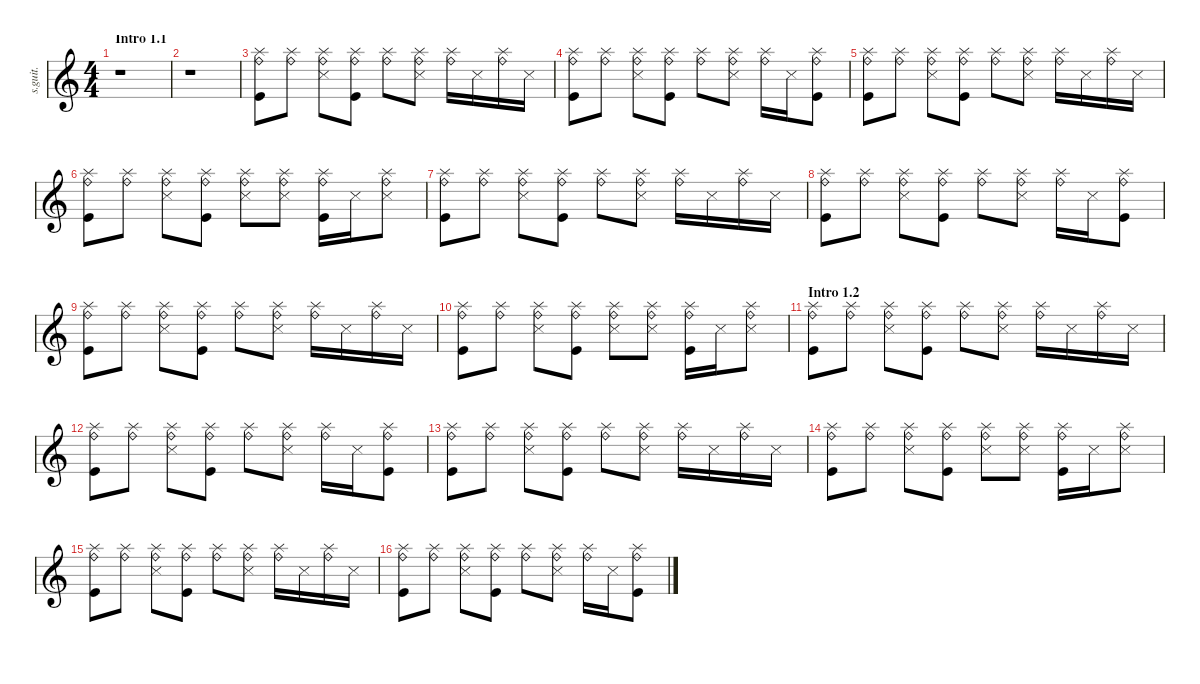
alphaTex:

\defaultSystemsLayout 4
\hideDynamics
\bracketExtendMode nobrackets
\track ("Sample Drums" "s.guit.") {instrument percussion}
\staff {score}
\articulation defaults
\ts (4 4)
\beaming (8 2 2 2 2)
\section ("" "Intro 1.1")
\tempo (192 hide)
\clef g2
\ks c
r.1{dy mf} |
r.1 |
("Splash (hit)" "Ride (bell)" "Kick (hit)").8{lyrics (0 "") lyrics (1 "") lyrics (2 "") lyrics (3 "") lyrics (4 "")} ("Splash (hit)" "Ride (bell)").8{lyrics (0 "") lyrics (1 "") lyrics (2 "") lyrics (3 "") lyrics (4 "")} ("Splash (hit)" "Ride (bell)" "Snare (side stick) 3").8{lyrics (0 "") lyrics (1 "") lyrics (2 "") lyrics (3 "") lyrics (4 "")} ("Splash (hit)" "Ride (bell)" "Kick (hit)").8{lyrics (0 "") lyrics (1 "") lyrics (2 "") lyrics (3 "") lyrics (4 "")} ("Splash (hit)" "Ride (bell)").8{lyrics (0 "") lyrics (1 "") lyrics (2 "") lyrics (3 "") lyrics (4 "")} ("Splash (hit)" "Ride (bell)" "Snare (side stick) 3").8{lyrics (0 "") lyrics (1 "") lyrics (2 "") lyrics (3 "") lyrics (4 "")} ("Splash (hit)" "Ride (bell)").16{lyrics (0 "") lyrics (1 "") lyrics (2 "") lyrics (3 "") lyrics (4 "")} "Snare (side stick) 3".16{lyrics (0 "") lyrics (1 "") lyrics (2 "") lyrics (3 "") lyrics (4 "")} ("Splash (hit)" "Ride (bell)").16{lyrics (0 "") lyrics (1 "") lyrics (2 "") lyrics (3 "") lyrics (4 "")} "Snare (side stick) 3".16{lyrics (0 "") lyrics (1 "") lyrics (2 "") lyrics (3 "") lyrics (4 "")} |
("Splash (hit)" "Ride (bell)" "Kick (hit)").8{lyrics (0 "") lyrics (1 "") lyrics (2 "") lyrics (3 "") lyrics (4 "")} ("Splash (hit)" "Ride (bell)").8{lyrics (0 "") lyrics (1 "") lyrics (2 "") lyrics (3 "") lyrics (4 "")} ("Splash (hit)" "Ride (bell)" "Snare (side stick) 3").8{lyrics (0 "") lyrics (1 "") lyrics (2 "") lyrics (3 "") lyrics (4 "")} ("Splash (hit)" "Ride (bell)" "Kick (hit)").8{lyrics (0 "") lyrics (1 "") lyrics (2 "") lyrics (3 "") lyrics (4 "")} ("Splash (hit)" "Ride (bell)").8{lyrics (0 "") lyrics (1 "") lyrics (2 "") lyrics (3 "") lyrics (4 "")} ("Splash (hit)" "Ride (bell)" "Snare (side stick) 3").8{lyrics (0 "") lyrics (1 "") lyrics (2 "") lyrics (3 "") lyrics (4 "")} ("Splash (hit)" "Ride (bell)").16{lyrics (0 "") lyrics (1 "") lyrics (2 "") lyrics (3 "") lyrics (4 "")} "Snare (side stick) 3".16{lyrics (0 "") lyrics (1 "") lyrics (2 "") lyrics (3 "") lyrics (4 "")} ("Splash (hit)" "Ride (bell)" "Kick (hit)").8{lyrics (0 "") lyrics (1 "") lyrics (2 "") lyrics (3 "") lyrics (4 "")} |
("Splash (hit)" "Ride (bell)" "Kick (hit)").8{lyrics (0 "") lyrics (1 "") lyrics (2 "") lyrics (3 "") lyrics (4 "")} ("Splash (hit)" "Ride (bell)").8{lyrics (0 "") lyrics (1 "") lyrics (2 "") lyrics (3 "") lyrics (4 "")} ("Splash (hit)" "Ride (bell)" "Snare (side stick) 3").8{lyrics (0 "") lyrics (1 "") lyrics (2 "") lyrics (3 "") lyrics (4 "")} ("Splash (hit)" "Ride (bell)" "Kick (hit)").8{lyrics (0 "") lyrics (1 "") lyrics (2 "") lyrics (3 "") lyrics (4 "")} ("Splash (hit)" "Ride (bell)").8{lyrics (0 "") lyrics (1 "") lyrics (2 "") lyrics (3 "") lyrics (4 "")} ("Splash (hit)" "Ride (bell)" "Snare (side stick) 3").8{lyrics (0 "") lyrics (1 "") lyrics (2 "") lyrics (3 "") lyrics (4 "")} ("Splash (hit)" "Ride (bell)").16{lyrics (0 "") lyrics (1 "") lyrics (2 "") lyrics (3 "") lyrics (4 "")} "Snare (side stick) 3".16{lyrics (0 "") lyrics (1 "") lyrics (2 "") lyrics (3 "") lyrics (4 "")} ("Splash (hit)" "Ride (bell)").16{lyrics (0 "") lyrics (1 "") lyrics (2 "") lyrics (3 "") lyrics (4 "")} "Snare (side stick) 3".16{lyrics (0 "") lyrics (1 "") lyrics (2 "") lyrics (3 "") lyrics (4 "")} |
("Splash (hit)" "Ride (bell)" "Kick (hit)").8{lyrics (0 "") lyrics (1 "") lyrics (2 "") lyrics (3 "") lyrics (4 "")} ("Splash (hit)" "Ride (bell)").8{lyrics (0 "") lyrics (1 "") lyrics (2 "") lyrics (3 "") lyrics (4 "")} ("Splash (hit)" "Ride (bell)" "Snare (side stick) 3").8{lyrics (0 "") lyrics (1 "") lyrics (2 "") lyrics (3 "") lyrics (4 "")} ("Splash (hit)" "Ride (bell)" "Kick (hit)").8{lyrics (0 "") lyrics (1 "") lyrics (2 "") lyrics (3 "") lyrics (4 "")} ("Splash (hit)" "Ride (bell)" "Snare (side stick) 3").8{lyrics (0 "") lyrics (1 "") lyrics (2 "") lyrics (3 "") lyrics (4 "")} ("Splash (hit)" "Ride (bell)" "Snare (side stick) 3").8{lyrics (0 "") lyrics (1 "") lyrics (2 "") lyrics (3 "") lyrics (4 "")} ("Splash (hit)" "Ride (bell)" "Kick (hit)").16{lyrics (0 "") lyrics (1 "") lyrics (2 "") lyrics (3 "") lyrics (4 "")} "Snare (side stick) 3".16{lyrics (0 "") lyrics (1 "") lyrics (2 "") lyrics (3 "") lyrics (4 "")} ("Splash (hit)" "Ride (bell)" "Snare (side stick) 3").8{lyrics (0 "") lyrics (1 "") lyrics (2 "") lyrics (3 "") lyrics (4 "")} |
("Splash (hit)" "Ride (bell)" "Kick (hit)").8{lyrics (0 "") lyrics (1 "") lyrics (2 "") lyrics (3 "") lyrics (4 "")} ("Splash (hit)" "Ride (bell)").8{lyrics (0 "") lyrics (1 "") lyrics (2 "") lyrics (3 "") lyrics (4 "")} ("Splash (hit)" "Ride (bell)" "Snare (side stick) 3").8{lyrics (0 "") lyrics (1 "") lyrics (2 "") lyrics (3 "") lyrics (4 "")} ("Splash (hit)" "Ride (bell)" "Kick (hit)").8{lyrics (0 "") lyrics (1 "") lyrics (2 "") lyrics (3 "") lyrics (4 "")} ("Splash (hit)" "Ride (bell)").8{lyrics (0 "") lyrics (1 "") lyrics (2 "") lyrics (3 "") lyrics (4 "")} ("Splash (hit)" "Ride (bell)" "Snare (side stick) 3").8{lyrics (0 "") lyrics (1 "") lyrics (2 "") lyrics (3 "") lyrics (4 "")} ("Splash (hit)" "Ride (bell)").16{lyrics (0 "") lyrics (1 "") lyrics (2 "") lyrics (3 "") lyrics (4 "")} "Snare (side stick) 3".16{lyrics (0 "") lyrics (1 "") lyrics (2 "") lyrics (3 "") lyrics (4 "")} ("Splash (hit)" "Ride (bell)").16{lyrics (0 "") lyrics (1 "") lyrics (2 "") lyrics (3 "") lyrics (4 "")} "Snare (side stick) 3".16{lyrics (0 "") lyrics (1 "") lyrics (2 "") lyrics (3 "") lyrics (4 "")} |
("Splash (hit)" "Ride (bell)" "Kick (hit)").8{lyrics (0 "") lyrics (1 "") lyrics (2 "") lyrics (3 "") lyrics (4 "")} ("Splash (hit)" "Ride (bell)").8{lyrics (0 "") lyrics (1 "") lyrics (2 "") lyrics (3 "") lyrics (4 "")} ("Splash (hit)" "Ride (bell)" "Snare (side stick) 3").8{lyrics (0 "") lyrics (1 "") lyrics (2 "") lyrics (3 "") lyrics (4 "")} ("Splash (hit)" "Ride (bell)" "Kick (hit)").8{lyrics (0 "") lyrics (1 "") lyrics (2 "") lyrics (3 "") lyrics (4 "")} ("Splash (hit)" "Ride (bell)").8{lyrics (0 "") lyrics (1 "") lyrics (2 "") lyrics (3 "") lyrics (4 "")} ("Splash (hit)" "Ride (bell)" "Snare (side stick) 3").8{lyrics (0 "") lyrics (1 "") lyrics (2 "") lyrics (3 "") lyrics (4 "")} ("Splash (hit)" "Ride (bell)").16{lyrics (0 "") lyrics (1 "") lyrics (2 "") lyrics (3 "") lyrics (4 "")} "Snare (side stick) 3".16{lyrics (0 "") lyrics (1 "") lyrics (2 "") lyrics (3 "") lyrics (4 "")} ("Splash (hit)" "Ride (bell)" "Kick (hit)").8{lyrics (0 "") lyrics (1 "") lyrics (2 "") lyrics (3 "") lyrics (4 "")} |
("Splash (hit)" "Ride (bell)" "Kick (hit)").8{lyrics (0 "") lyrics (1 "") lyrics (2 "") lyrics (3 "") lyrics (4 "")} ("Splash (hit)" "Ride (bell)").8{lyrics (0 "") lyrics (1 "") lyrics (2 "") lyrics (3 "") lyrics (4 "")} ("Splash (hit)" "Ride (bell)" "Snare (side stick) 3").8{lyrics (0 "") lyrics (1 "") lyrics (2 "") lyrics (3 "") lyrics (4 "")} ("Splash (hit)" "Ride (bell)" "Kick (hit)").8{lyrics (0 "") lyrics (1 "") lyrics (2 "") lyrics (3 "") lyrics (4 "")} ("Splash (hit)" "Ride (bell)").8{lyrics (0 "") lyrics (1 "") lyrics (2 "") lyrics (3 "") lyrics (4 "")} ("Splash (hit)" "Ride (bell)" "Snare (side stick) 3").8{lyrics (0 "") lyrics (1 "") lyrics (2 "") lyrics (3 "") lyrics (4 "")} ("Splash (hit)" "Ride (bell)").16{lyrics (0 "") lyrics (1 "") lyrics (2 "") lyrics (3 "") lyrics (4 "")} "Snare (side stick) 3".16{lyrics (0 "") lyrics (1 "") lyrics (2 "") lyrics (3 "") lyrics (4 "")} ("Splash (hit)" "Ride (bell)").16{lyrics (0 "") lyrics (1 "") lyrics (2 "") lyrics (3 "") lyrics (4 "")} "Snare (side stick) 3".16{lyrics (0 "") lyrics (1 "") lyrics (2 "") lyrics (3 "") lyrics (4 "")} |
("Splash (hit)" "Ride (bell)" "Kick (hit)").8{lyrics (0 "") lyrics (1 "") lyrics (2 "") lyrics (3 "") lyrics (4 "")} ("Splash (hit)" "Ride (bell)").8{lyrics (0 "") lyrics (1 "") lyrics (2 "") lyrics (3 "") lyrics (4 "")} ("Splash (hit)" "Ride (bell)" "Snare (side stick) 3").8{lyrics (0 "") lyrics (1 "") lyrics (2 "") lyrics (3 "") lyrics (4 "")} ("Splash (hit)" "Ride (bell)" "Kick (hit)").8{lyrics (0 "") lyrics (1 "") lyrics (2 "") lyrics (3 "") lyrics (4 "")} ("Splash (hit)" "Ride (bell)" "Snare (side stick) 3").8{lyrics (0 "") lyrics (1 "") lyrics (2 "") lyrics (3 "") lyrics (4 "")} ("Splash (hit)" "Ride (bell)" "Snare (side stick) 3").8{lyrics (0 "") lyrics (1 "") lyrics (2 "") lyrics (3 "") lyrics (4 "")} ("Splash (hit)" "Ride (bell)" "Kick (hit)").16{lyrics (0 "") lyrics (1 "") lyrics (2 "") lyrics (3 "") lyrics (4 "")} "Snare (side stick) 3".16{lyrics (0 "") lyrics (1 "") lyrics (2 "") lyrics (3 "") lyrics (4 "")} ("Splash (hit)" "Ride (bell)" "Snare (side stick) 3").8{lyrics (0 "") lyrics (1 "") lyrics (2 "") lyrics (3 "") lyrics (4 "")} |
\section ("" "Intro 1.2")
("Splash (hit)" "Ride (bell)" "Kick (hit)").8{lyrics (0 "") lyrics (1 "") lyrics (2 "") lyrics (3 "") lyrics (4 "")} ("Splash (hit)" "Ride (bell)").8{lyrics (0 "") lyrics (1 "") lyrics (2 "") lyrics (3 "") lyrics (4 "")} ("Splash (hit)" "Ride (bell)" "Snare (side stick) 3").8{lyrics (0 "") lyrics (1 "") lyrics (2 "") lyrics (3 "") lyrics (4 "")} ("Splash (hit)" "Ride (bell)" "Kick (hit)").8{lyrics (0 "") lyrics (1 "") lyrics (2 "") lyrics (3 "") lyrics (4 "")} ("Splash (hit)" "Ride (bell)").8{lyrics (0 "") lyrics (1 "") lyrics (2 "") lyrics (3 "") lyrics (4 "")} ("Splash (hit)" "Ride (bell)" "Snare (side stick) 3").8{lyrics (0 "") lyrics (1 "") lyrics (2 "") lyrics (3 "") lyrics (4 "")} ("Splash (hit)" "Ride (bell)").16{lyrics (0 "") lyrics (1 "") lyrics (2 "") lyrics (3 "") lyrics (4 "")} "Snare (side stick) 3".16{lyrics (0 "") lyrics (1 "") lyrics (2 "") lyrics (3 "") lyrics (4 "")} ("Splash (hit)" "Ride (bell)").16{lyrics (0 "") lyrics (1 "") lyrics (2 "") lyrics (3 "") lyrics (4 "")} "Snare (side stick) 3".16{lyrics (0 "") lyrics (1 "") lyrics (2 "") lyrics (3 "") lyrics (4 "")} |
("Splash (hit)" "Ride (bell)" "Kick (hit)").8{lyrics (0 "") lyrics (1 "") lyrics (2 "") lyrics (3 "") lyrics (4 "")} ("Splash (hit)" "Ride (bell)").8{lyrics (0 "") lyrics (1 "") lyrics (2 "") lyrics (3 "") lyrics (4 "")} ("Splash (hit)" "Ride (bell)" "Snare (side stick) 3").8{lyrics (0 "") lyrics (1 "") lyrics (2 "") lyrics (3 "") lyrics (4 "")} ("Splash (hit)" "Ride (bell)" "Kick (hit)").8{lyrics (0 "") lyrics (1 "") lyrics (2 "") lyrics (3 "") lyrics (4 "")} ("Splash (hit)" "Ride (bell)").8{lyrics (0 "") lyrics (1 "") lyrics (2 "") lyrics (3 "") lyrics (4 "")} ("Splash (hit)" "Ride (bell)" "Snare (side stick) 3").8{lyrics (0 "") lyrics (1 "") lyrics (2 "") lyrics (3 "") lyrics (4 "")} ("Splash (hit)" "Ride (bell)").16{lyrics (0 "") lyrics (1 "") lyrics (2 "") lyrics (3 "") lyrics (4 "")} "Snare (side stick) 3".16{lyrics (0 "") lyrics (1 "") lyrics (2 "") lyrics (3 "") lyrics (4 "")} ("Splash (hit)" "Ride (bell)" "Kick (hit)").8{lyrics (0 "") lyrics (1 "") lyrics (2 "") lyrics (3 "") lyrics (4 "")} |
("Splash (hit)" "Ride (bell)" "Kick (hit)").8{lyrics (0 "") lyrics (1 "") lyrics (2 "") lyrics (3 "") lyrics (4 "")} ("Splash (hit)" "Ride (bell)").8{lyrics (0 "") lyrics (1 "") lyrics (2 "") lyrics (3 "") lyrics (4 "")} ("Splash (hit)" "Ride (bell)" "Snare (side stick) 3").8{lyrics (0 "") lyrics (1 "") lyrics (2 "") lyrics (3 "") lyrics (4 "")} ("Splash (hit)" "Ride (bell)" "Kick (hit)").8{lyrics (0 "") lyrics (1 "") lyrics (2 "") lyrics (3 "") lyrics (4 "")} ("Splash (hit)" "Ride (bell)").8{lyrics (0 "") lyrics (1 "") lyrics (2 "") lyrics (3 "") lyrics (4 "")} ("Splash (hit)" "Ride (bell)" "Snare (side stick) 3").8{lyrics (0 "") lyrics (1 "") lyrics (2 "") lyrics (3 "") lyrics (4 "")} ("Splash (hit)" "Ride (bell)").16{lyrics (0 "") lyrics (1 "") lyrics (2 "") lyrics (3 "") lyrics (4 "")} "Snare (side stick) 3".16{lyrics (0 "") lyrics (1 "") lyrics (2 "") lyrics (3 "") lyrics (4 "")} ("Splash (hit)" "Ride (bell)").16{lyrics (0 "") lyrics (1 "") lyrics (2 "") lyrics (3 "") lyrics (4 "")} "Snare (side stick) 3".16{lyrics (0 "") lyrics (1 "") lyrics (2 "") lyrics (3 "") lyrics (4 "")} |
("Splash (hit)" "Ride (bell)" "Kick (hit)").8{lyrics (0 "") lyrics (1 "") lyrics (2 "") lyrics (3 "") lyrics (4 "")} ("Splash (hit)" "Ride (bell)").8{lyrics (0 "") lyrics (1 "") lyrics (2 "") lyrics (3 "") lyrics (4 "")} ("Splash (hit)" "Ride (bell)" "Snare (side stick) 3").8{lyrics (0 "") lyrics (1 "") lyrics (2 "") lyrics (3 "") lyrics (4 "")} ("Splash (hit)" "Ride (bell)" "Kick (hit)").8{lyrics (0 "") lyrics (1 "") lyrics (2 "") lyrics (3 "") lyrics (4 "")} ("Splash (hit)" "Ride (bell)" "Snare (side stick) 3").8{lyrics (0 "") lyrics (1 "") lyrics (2 "") lyrics (3 "") lyrics (4 "")} ("Splash (hit)" "Ride (bell)" "Snare (side stick) 3").8{lyrics (0 "") lyrics (1 "") lyrics (2 "") lyrics (3 "") lyrics (4 "")} ("Splash (hit)" "Ride (bell)" "Kick (hit)").16{lyrics (0 "") lyrics (1 "") lyrics (2 "") lyrics (3 "") lyrics (4 "")} "Snare (side stick) 3".16{lyrics (0 "") lyrics (1 "") lyrics (2 "") lyrics (3 "") lyrics (4 "")} ("Splash (hit)" "Ride (bell)" "Snare (side stick) 3").8{lyrics (0 "") lyrics (1 "") lyrics (2 "") lyrics (3 "") lyrics (4 "")} |
("Splash (hit)" "Ride (bell)" "Kick (hit)").8{lyrics (0 "") lyrics (1 "") lyrics (2 "") lyrics (3 "") lyrics (4 "")} ("Splash (hit)" "Ride (bell)").8{lyrics (0 "") lyrics (1 "") lyrics (2 "") lyrics (3 "") lyrics (4 "")} ("Splash (hit)" "Ride (bell)" "Snare (side stick) 3").8{lyrics (0 "") lyrics (1 "") lyrics (2 "") lyrics (3 "") lyrics (4 "")} ("Splash (hit)" "Ride (bell)" "Kick (hit)").8{lyrics (0 "") lyrics (1 "") lyrics (2 "") lyrics (3 "") lyrics (4 "")} ("Splash (hit)" "Ride (bell)").8{lyrics (0 "") lyrics (1 "") lyrics (2 "") lyrics (3 "") lyrics (4 "")} ("Splash (hit)" "Ride (bell)" "Snare (side stick) 3").8{lyrics (0 "") lyrics (1 "") lyrics (2 "") lyrics (3 "") lyrics (4 "")} ("Splash (hit)" "Ride (bell)").16{lyrics (0 "") lyrics (1 "") lyrics (2 "") lyrics (3 "") lyrics (4 "")} "Snare (side stick) 3".16{lyrics (0 "") lyrics (1 "") lyrics (2 "") lyrics (3 "") lyrics (4 "")} ("Splash (hit)" "Ride (bell)").16{lyrics (0 "") lyrics (1 "") lyrics (2 "") lyrics (3 "") lyrics (4 "")} "Snare (side stick) 3".16{lyrics (0 "") lyrics (1 "") lyrics (2 "") lyrics (3 "") lyrics (4 "")} |
("Splash (hit)" "Ride (bell)" "Kick (hit)").8{lyrics (0 "") lyrics (1 "") lyrics (2 "") lyrics (3 "") lyrics (4 "")} ("Splash (hit)" "Ride (bell)").8{lyrics (0 "") lyrics (1 "") lyrics (2 "") lyrics (3 "") lyrics (4 "")} ("Splash (hit)" "Ride (bell)" "Snare (side stick) 3").8{lyrics (0 "") lyrics (1 "") lyrics (2 "") lyrics (3 "") lyrics (4 "")} ("Splash (hit)" "Ride (bell)" "Kick (hit)").8{lyrics (0 "") lyrics (1 "") lyrics (2 "") lyrics (3 "") lyrics (4 "")} ("Splash (hit)" "Ride (bell)").8{lyrics (0 "") lyrics (1 "") lyrics (2 "") lyrics (3 "") lyrics (4 "")} ("Splash (hit)" "Ride (bell)" "Snare (side stick) 3").8{lyrics (0 "") lyrics (1 "") lyrics (2 "") lyrics (3 "") lyrics (4 "")} ("Splash (hit)" "Ride (bell)").16{lyrics (0 "") lyrics (1 "") lyrics (2 "") lyrics (3 "") lyrics (4 "")} "Snare (side stick) 3".16{lyrics (0 "") lyrics (1 "") lyrics (2 "") lyrics (3 "") lyrics (4 "")} ("Splash (hit)" "Ride (bell)" "Kick (hit)").8{lyrics (0 "") lyrics (1 "") lyrics (2 "") lyrics (3 "") lyrics (4 "")}
